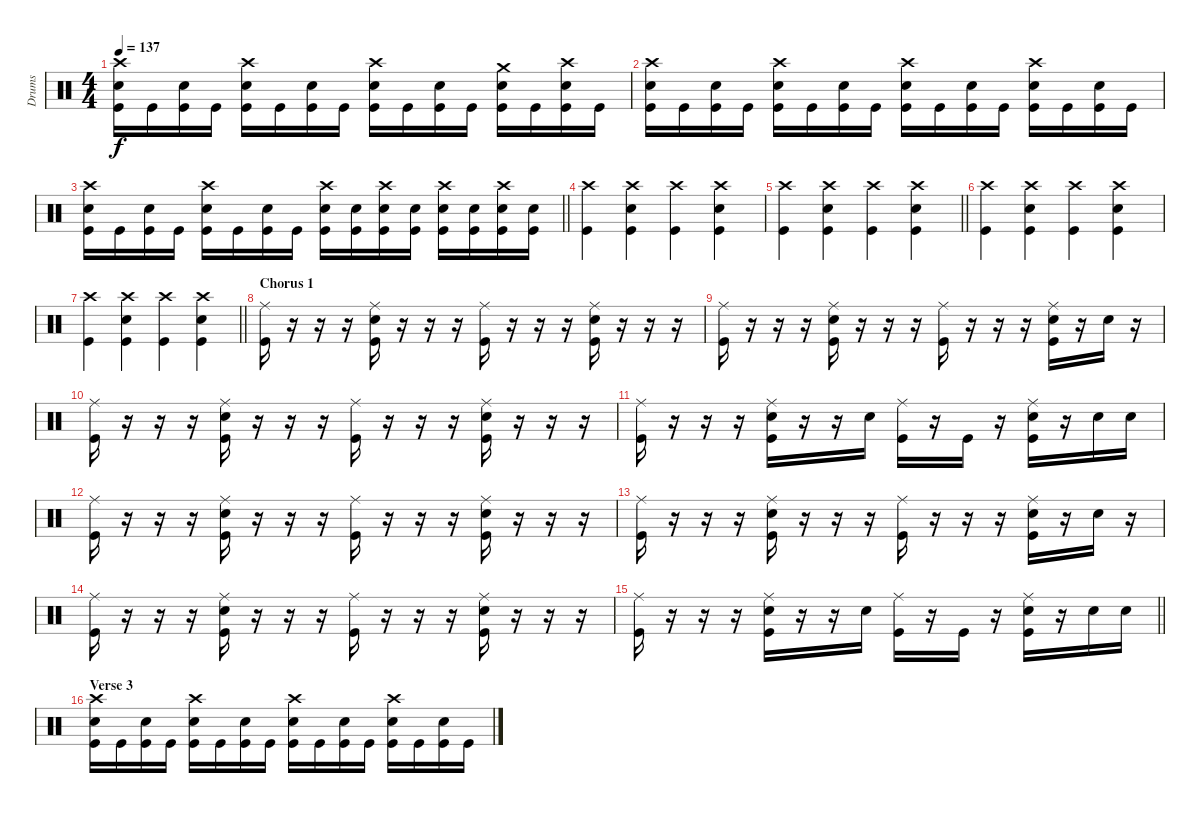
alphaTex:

\track ("Drums" "Drums") {instrument percussion}
\staff {score}
\articulation defaults
\ts (4 4)
\tempo 137
\clef neutral
\ks c
("Crash high (hit)" "Snare (hit) 2" "Kick (hit)").16{dy f} "Kick (hit)".16 ("Snare (hit) 2" "Kick (hit)").16 "Kick (hit)".16 ("Crash high (hit)" "Snare (hit) 2" "Kick (hit)").16 "Kick (hit)".16 ("Snare (hit) 2" "Kick (hit)").16 "Kick (hit)".16 ("Crash high (hit)" "Snare (hit) 2" "Kick (hit)").16 "Kick (hit)".16 ("Snare (hit) 2" "Kick (hit)").16 "Kick (hit)".16 ("Crash medium (hit)" "Snare (hit) 2" "Kick (hit)").16 "Kick (hit)".16 ("Crash high (hit)" "Snare (hit) 2" "Kick (hit)").16 "Kick (hit)".16 |
("Crash high (hit)" "Snare (hit) 2" "Kick (hit)").16 "Kick (hit)".16 ("Snare (hit) 2" "Kick (hit)").16 "Kick (hit)".16 ("Crash high (hit)" "Snare (hit) 2" "Kick (hit)").16 "Kick (hit)".16 ("Snare (hit) 2" "Kick (hit)").16 "Kick (hit)".16 ("Crash high (hit)" "Snare (hit) 2" "Kick (hit)").16 "Kick (hit)".16 ("Snare (hit) 2" "Kick (hit)").16 "Kick (hit)".16 ("Crash high (hit)" "Snare (hit) 2" "Kick (hit)").16 "Kick (hit)".16 ("Snare (hit) 2" "Kick (hit)").16 "Kick (hit)".16 |
\barLineRight lightlight
("Crash high (hit)" "Snare (hit) 2" "Kick (hit)").16 "Kick (hit)".16 ("Snare (hit) 2" "Kick (hit)").16 "Kick (hit)".16 ("Crash high (hit)" "Snare (hit) 2" "Kick (hit)").16 "Kick (hit)".16 ("Snare (hit) 2" "Kick (hit)").16 "Kick (hit)".16 ("Crash high (hit)" "Snare (hit) 2" "Kick (hit)").16 ("Snare (hit) 2" "Kick (hit)").16 ("Crash high (hit)" "Snare (hit) 2" "Kick (hit)").16 ("Snare (hit) 2" "Kick (hit)").16 ("Crash high (hit)" "Snare (hit) 2" "Kick (hit)").16 ("Snare (hit) 2" "Kick (hit)").16 ("Crash high (hit)" "Snare (hit) 2" "Kick (hit)").16 ("Snare (hit) 2" "Kick (hit)").16 |
("Crash high (hit)" "Kick (hit)").4 ("Crash high (hit)" "Snare (hit) 2" "Kick (hit)").4 ("Crash high (hit)" "Kick (hit)").4 ("Crash high (hit)" "Snare (hit) 2" "Kick (hit)").4 |
\barLineRight lightlight
("Crash high (hit)" "Kick (hit)").4 ("Crash high (hit)" "Snare (hit) 2" "Kick (hit)").4 ("Crash high (hit)" "Kick (hit)").4 ("Crash high (hit)" "Snare (hit) 2" "Kick (hit)").4 |
("Crash high (hit)" "Kick (hit)").4 ("Crash high (hit)" "Snare (hit) 2" "Kick (hit)").4 ("Crash high (hit)" "Kick (hit)").4 ("Crash high (hit)" "Snare (hit) 2" "Kick (hit)").4 |
\barLineRight lightlight
("Crash high (hit)" "Kick (hit)").4 ("Crash high (hit)" "Snare (hit) 2" "Kick (hit)").4 ("Crash high (hit)" "Kick (hit)").4 ("Crash high (hit)" "Snare (hit) 2" "Kick (hit)").4 |
\section ("" "Chorus 1")
("Ride (middle)" "Kick (hit)").16 r.16 r.16 r.16 ("Ride (middle)" "Snare (hit) 2" "Kick (hit)").16 r.16 r.16 r.16 ("Ride (middle)" "Kick (hit)").16 r.16 r.16 r.16 ("Ride (middle)" "Snare (hit) 2" "Kick (hit)").16 r.16 r.16 r.16 |
("Ride (middle)" "Kick (hit)").16 r.16 r.16 r.16 ("Ride (middle)" "Snare (hit) 2" "Kick (hit)").16 r.16 r.16 r.16 ("Ride (middle)" "Kick (hit)").16 r.16 r.16 r.16 ("Ride (middle)" "Snare (hit) 2" "Kick (hit)").16 r.16 "Snare (hit) 2".16 r.16 |
("Ride (middle)" "Kick (hit)").16 r.16 r.16 r.16 ("Ride (middle)" "Snare (hit) 2" "Kick (hit)").16 r.16 r.16 r.16 ("Ride (middle)" "Kick (hit)").16 r.16 r.16 r.16 ("Ride (middle)" "Snare (hit) 2" "Kick (hit)").16 r.16 r.16 r.16 |
("Ride (middle)" "Kick (hit)").16 r.16 r.16 r.16 ("Ride (middle)" "Snare (hit) 2" "Kick (hit)").16 r.16 r.16 "Snare (hit) 2".16 ("Ride (middle)" "Kick (hit)").16 r.16 "Kick (hit)".16 r.16 ("Ride (middle)" "Snare (hit) 2" "Kick (hit)").16 r.16 "Snare (hit) 2".16 "Snare (hit) 2".16 |
("Ride (middle)" "Kick (hit)").16 r.16 r.16 r.16 ("Ride (middle)" "Snare (hit) 2" "Kick (hit)").16 r.16 r.16 r.16 ("Ride (middle)" "Kick (hit)").16 r.16 r.16 r.16 ("Ride (middle)" "Snare (hit) 2" "Kick (hit)").16 r.16 r.16 r.16 |
("Ride (middle)" "Kick (hit)").16 r.16 r.16 r.16 ("Ride (middle)" "Snare (hit) 2" "Kick (hit)").16 r.16 r.16 r.16 ("Ride (middle)" "Kick (hit)").16 r.16 r.16 r.16 ("Ride (middle)" "Snare (hit) 2" "Kick (hit)").16 r.16 "Snare (hit) 2".16 r.16 |
("Ride (middle)" "Kick (hit)").16 r.16 r.16 r.16 ("Ride (middle)" "Snare (hit) 2" "Kick (hit)").16 r.16 r.16 r.16 ("Ride (middle)" "Kick (hit)").16 r.16 r.16 r.16 ("Ride (middle)" "Snare (hit) 2" "Kick (hit)").16 r.16 r.16 r.16 |
\barLineRight lightlight
("Ride (middle)" "Kick (hit)").16 r.16 r.16 r.16 ("Ride (middle)" "Snare (hit) 2" "Kick (hit)").16 r.16 r.16 "Snare (hit) 2".16 ("Ride (middle)" "Kick (hit)").16 r.16 "Kick (hit)".16 r.16 ("Ride (middle)" "Snare (hit) 2" "Kick (hit)").16 r.16 "Snare (hit) 2".16 "Snare (hit) 2".16 |
\section ("" "Verse 3")
("Crash high (hit)" "Snare (hit) 2" "Kick (hit)").16 "Kick (hit)".16 ("Snare (hit) 2" "Kick (hit)").16 "Kick (hit)".16 ("Crash high (hit)" "Snare (hit) 2" "Kick (hit)").16 "Kick (hit)".16 ("Snare (hit) 2" "Kick (hit)").16 "Kick (hit)".16 ("Crash high (hit)" "Snare (hit) 2" "Kick (hit)").16 "Kick (hit)".16 ("Snare (hit) 2" "Kick (hit)").16 "Kick (hit)".16 ("Crash high (hit)" "Snare (hit) 2" "Kick (hit)").16 "Kick (hit)".16 ("Snare (hit) 2" "Kick (hit)").16 "Kick (hit)".16
